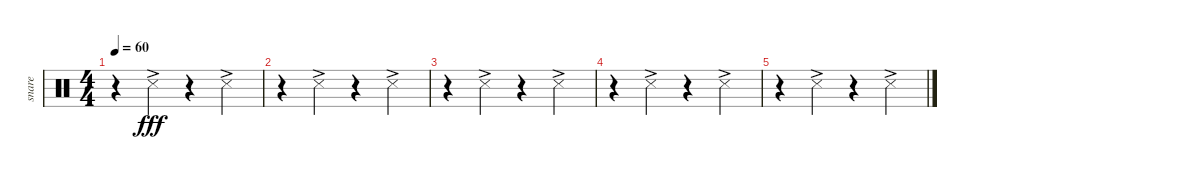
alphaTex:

\track ("snare" "snare") {instrument percussion}
\staff {score}
\articulation defaults
\ts (4 4)
\tempo 60
\clef neutral
\ks c
r.4{dy fff} "Snare (side stick) 3"{ac}.4 r.4 "Snare (side stick) 3"{ac}.4 |
r.4 "Snare (side stick) 3"{ac}.4 r.4 "Snare (side stick) 3"{ac}.4 |
r.4 "Snare (side stick) 3"{ac}.4 r.4 "Snare (side stick) 3"{ac}.4 |
r.4 "Snare (side stick) 3"{ac}.4 r.4 "Snare (side stick) 3"{ac}.4 |
r.4 "Snare (side stick) 3"{ac}.4 r.4 "Snare (side stick) 3"{ac}.4
